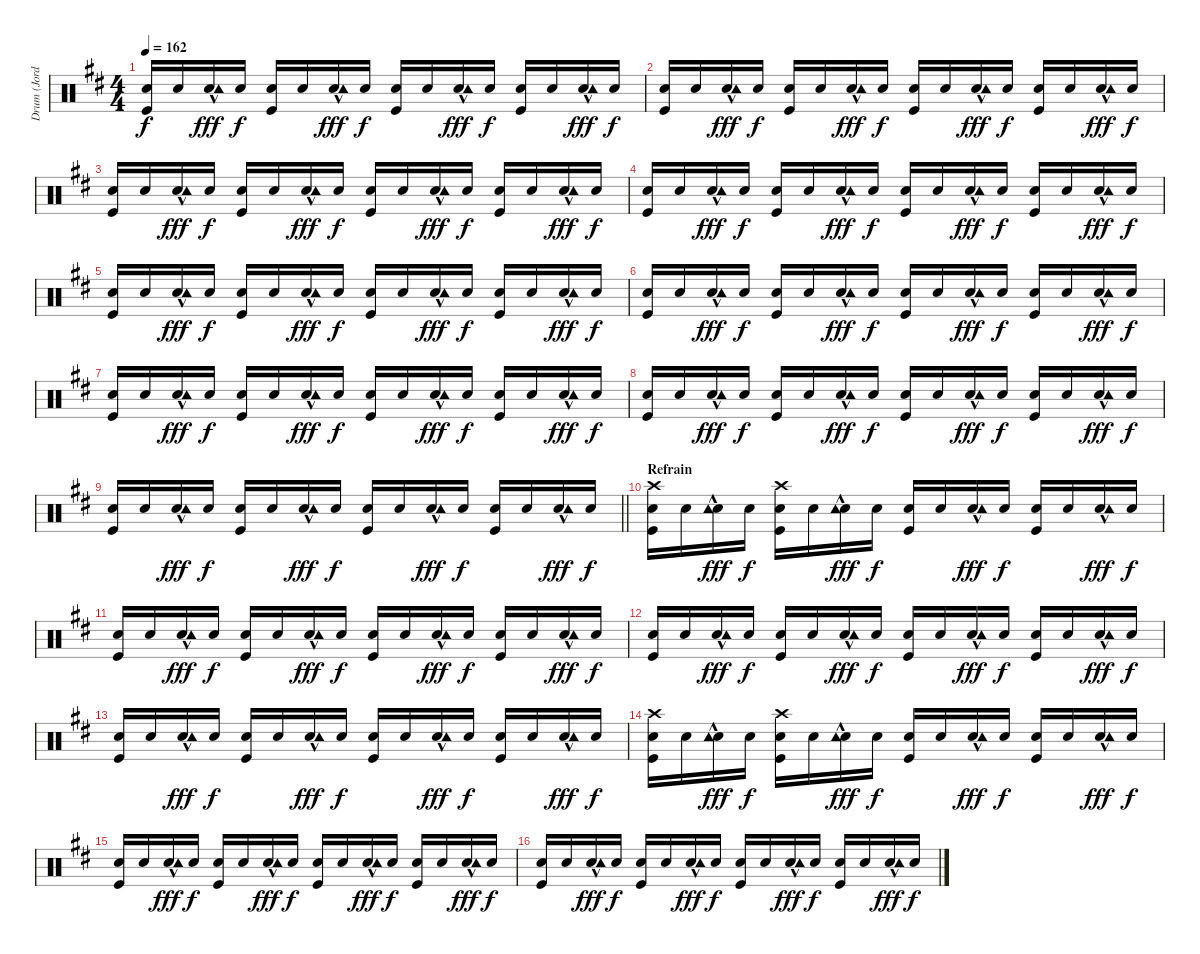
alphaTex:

\track ("Drum (Jordan)" "Drum (Jord") {instrument percussion}
\staff {score}
\articulation defaults
\ts (4 4)
\tempo 162
\clef neutral
\ks d
("Snare (hit) 2" "Kick (hit)").16{dy f} "Snare (hit) 2".16 ("Snare (hit) 2"{hac} "Tambourine (hit)").16{dy fff} "Snare (hit) 2".16{dy f} ("Snare (hit) 2" "Kick (hit)").16 "Snare (hit) 2".16 ("Snare (hit) 2"{hac} "Tambourine (hit)").16{dy fff} "Snare (hit) 2".16{dy f} ("Snare (hit) 2" "Kick (hit)").16 "Snare (hit) 2".16 ("Snare (hit) 2"{hac} "Tambourine (hit)").16{dy fff} "Snare (hit) 2".16{dy f} ("Snare (hit) 2" "Kick (hit)").16 "Snare (hit) 2".16 ("Snare (hit) 2"{hac} "Tambourine (hit)").16{dy fff} "Snare (hit) 2".16{dy f} |
("Snare (hit) 2" "Kick (hit)").16 "Snare (hit) 2".16 ("Snare (hit) 2"{hac} "Tambourine (hit)").16{dy fff} "Snare (hit) 2".16{dy f} ("Snare (hit) 2" "Kick (hit)").16 "Snare (hit) 2".16 ("Snare (hit) 2"{hac} "Tambourine (hit)").16{dy fff} "Snare (hit) 2".16{dy f} ("Snare (hit) 2" "Kick (hit)").16 "Snare (hit) 2".16 ("Snare (hit) 2"{hac} "Tambourine (hit)").16{dy fff} "Snare (hit) 2".16{dy f} ("Snare (hit) 2" "Kick (hit)").16 "Snare (hit) 2".16 ("Snare (hit) 2"{hac} "Tambourine (hit)").16{dy fff} "Snare (hit) 2".16{dy f} |
("Snare (hit) 2" "Kick (hit)").16 "Snare (hit) 2".16 ("Snare (hit) 2"{hac} "Tambourine (hit)").16{dy fff} "Snare (hit) 2".16{dy f} ("Snare (hit) 2" "Kick (hit)").16 "Snare (hit) 2".16 ("Snare (hit) 2"{hac} "Tambourine (hit)").16{dy fff} "Snare (hit) 2".16{dy f} ("Snare (hit) 2" "Kick (hit)").16 "Snare (hit) 2".16 ("Snare (hit) 2"{hac} "Tambourine (hit)").16{dy fff} "Snare (hit) 2".16{dy f} ("Snare (hit) 2" "Kick (hit)").16 "Snare (hit) 2".16 ("Snare (hit) 2"{hac} "Tambourine (hit)").16{dy fff} "Snare (hit) 2".16{dy f} |
("Snare (hit) 2" "Kick (hit)").16 "Snare (hit) 2".16 ("Snare (hit) 2"{hac} "Tambourine (hit)").16{dy fff} "Snare (hit) 2".16{dy f} ("Snare (hit) 2" "Kick (hit)").16 "Snare (hit) 2".16 ("Snare (hit) 2"{hac} "Tambourine (hit)").16{dy fff} "Snare (hit) 2".16{dy f} ("Snare (hit) 2" "Kick (hit)").16 "Snare (hit) 2".16 ("Snare (hit) 2"{hac} "Tambourine (hit)").16{dy fff} "Snare (hit) 2".16{dy f} ("Snare (hit) 2" "Kick (hit)").16 "Snare (hit) 2".16 ("Snare (hit) 2"{hac} "Tambourine (hit)").16{dy fff} "Snare (hit) 2".16{dy f} |
("Snare (hit) 2" "Kick (hit)").16 "Snare (hit) 2".16 ("Snare (hit) 2"{hac} "Tambourine (hit)").16{dy fff} "Snare (hit) 2".16{dy f} ("Snare (hit) 2" "Kick (hit)").16 "Snare (hit) 2".16 ("Snare (hit) 2"{hac} "Tambourine (hit)").16{dy fff} "Snare (hit) 2".16{dy f} ("Snare (hit) 2" "Kick (hit)").16 "Snare (hit) 2".16 ("Snare (hit) 2"{hac} "Tambourine (hit)").16{dy fff} "Snare (hit) 2".16{dy f} ("Snare (hit) 2" "Kick (hit)").16 "Snare (hit) 2".16 ("Snare (hit) 2"{hac} "Tambourine (hit)").16{dy fff} "Snare (hit) 2".16{dy f} |
("Snare (hit) 2" "Kick (hit)").16 "Snare (hit) 2".16 ("Snare (hit) 2"{hac} "Tambourine (hit)").16{dy fff} "Snare (hit) 2".16{dy f} ("Snare (hit) 2" "Kick (hit)").16 "Snare (hit) 2".16 ("Snare (hit) 2"{hac} "Tambourine (hit)").16{dy fff} "Snare (hit) 2".16{dy f} ("Snare (hit) 2" "Kick (hit)").16 "Snare (hit) 2".16 ("Snare (hit) 2"{hac} "Tambourine (hit)").16{dy fff} "Snare (hit) 2".16{dy f} ("Snare (hit) 2" "Kick (hit)").16 "Snare (hit) 2".16 ("Snare (hit) 2"{hac} "Tambourine (hit)").16{dy fff} "Snare (hit) 2".16{dy f} |
("Snare (hit) 2" "Kick (hit)").16 "Snare (hit) 2".16 ("Snare (hit) 2"{hac} "Tambourine (hit)").16{dy fff} "Snare (hit) 2".16{dy f} ("Snare (hit) 2" "Kick (hit)").16 "Snare (hit) 2".16 ("Snare (hit) 2"{hac} "Tambourine (hit)").16{dy fff} "Snare (hit) 2".16{dy f} ("Snare (hit) 2" "Kick (hit)").16 "Snare (hit) 2".16 ("Snare (hit) 2"{hac} "Tambourine (hit)").16{dy fff} "Snare (hit) 2".16{dy f} ("Snare (hit) 2" "Kick (hit)").16 "Snare (hit) 2".16 ("Snare (hit) 2"{hac} "Tambourine (hit)").16{dy fff} "Snare (hit) 2".16{dy f} |
("Snare (hit) 2" "Kick (hit)").16 "Snare (hit) 2".16 ("Snare (hit) 2"{hac} "Tambourine (hit)").16{dy fff} "Snare (hit) 2".16{dy f} ("Snare (hit) 2" "Kick (hit)").16 "Snare (hit) 2".16 ("Snare (hit) 2"{hac} "Tambourine (hit)").16{dy fff} "Snare (hit) 2".16{dy f} ("Snare (hit) 2" "Kick (hit)").16 "Snare (hit) 2".16 ("Snare (hit) 2"{hac} "Tambourine (hit)").16{dy fff} "Snare (hit) 2".16{dy f} ("Snare (hit) 2" "Kick (hit)").16 "Snare (hit) 2".16 ("Snare (hit) 2"{hac} "Tambourine (hit)").16{dy fff} "Snare (hit) 2".16{dy f} |
\barLineRight lightlight
("Snare (hit) 2" "Kick (hit)").16 "Snare (hit) 2".16 ("Snare (hit) 2"{hac} "Tambourine (hit)").16{dy fff} "Snare (hit) 2".16{dy f} ("Snare (hit) 2" "Kick (hit)").16 "Snare (hit) 2".16 ("Snare (hit) 2"{hac} "Tambourine (hit)").16{dy fff} "Snare (hit) 2".16{dy f} ("Snare (hit) 2" "Kick (hit)").16 "Snare (hit) 2".16 ("Snare (hit) 2"{hac} "Tambourine (hit)").16{dy fff} "Snare (hit) 2".16{dy f} ("Snare (hit) 2" "Kick (hit)").16 "Snare (hit) 2".16 ("Snare (hit) 2"{hac} "Tambourine (hit)").16{dy fff} "Snare (hit) 2".16{dy f} |
\section ("" "Refrain")
("Snare (hit) 2" "Kick (hit)" "Crash high (hit)").16 "Snare (hit) 2".16 ("Snare (hit) 2"{hac} "Tambourine (hit)").16{dy fff} "Snare (hit) 2".16{dy f} ("Snare (hit) 2" "Kick (hit)" "Crash high (hit)").16 "Snare (hit) 2".16 ("Snare (hit) 2"{hac} "Tambourine (hit)").16{dy fff} "Snare (hit) 2".16{dy f} ("Snare (hit) 2" "Kick (hit)").16 "Snare (hit) 2".16 ("Snare (hit) 2"{hac} "Tambourine (hit)").16{dy fff} "Snare (hit) 2".16{dy f} ("Snare (hit) 2" "Kick (hit)").16 "Snare (hit) 2".16 ("Snare (hit) 2"{hac} "Tambourine (hit)").16{dy fff} "Snare (hit) 2".16{dy f} |
("Snare (hit) 2" "Kick (hit)").16 "Snare (hit) 2".16 ("Snare (hit) 2"{hac} "Tambourine (hit)").16{dy fff} "Snare (hit) 2".16{dy f} ("Snare (hit) 2" "Kick (hit)").16 "Snare (hit) 2".16 ("Snare (hit) 2"{hac} "Tambourine (hit)").16{dy fff} "Snare (hit) 2".16{dy f} ("Snare (hit) 2" "Kick (hit)").16 "Snare (hit) 2".16 ("Snare (hit) 2"{hac} "Tambourine (hit)").16{dy fff} "Snare (hit) 2".16{dy f} ("Snare (hit) 2" "Kick (hit)").16 "Snare (hit) 2".16 ("Snare (hit) 2"{hac} "Tambourine (hit)").16{dy fff} "Snare (hit) 2".16{dy f} |
("Snare (hit) 2" "Kick (hit)").16 "Snare (hit) 2".16 ("Snare (hit) 2"{hac} "Tambourine (hit)").16{dy fff} "Snare (hit) 2".16{dy f} ("Snare (hit) 2" "Kick (hit)").16 "Snare (hit) 2".16 ("Snare (hit) 2"{hac} "Tambourine (hit)").16{dy fff} "Snare (hit) 2".16{dy f} ("Snare (hit) 2" "Kick (hit)").16 "Snare (hit) 2".16 ("Snare (hit) 2"{hac} "Tambourine (hit)").16{dy fff} "Snare (hit) 2".16{dy f} ("Snare (hit) 2" "Kick (hit)").16 "Snare (hit) 2".16 ("Snare (hit) 2"{hac} "Tambourine (hit)").16{dy fff} "Snare (hit) 2".16{dy f} |
("Snare (hit) 2" "Kick (hit)").16 "Snare (hit) 2".16 ("Snare (hit) 2"{hac} "Tambourine (hit)").16{dy fff} "Snare (hit) 2".16{dy f} ("Snare (hit) 2" "Kick (hit)").16 "Snare (hit) 2".16 ("Snare (hit) 2"{hac} "Tambourine (hit)").16{dy fff} "Snare (hit) 2".16{dy f} ("Snare (hit) 2" "Kick (hit)").16 "Snare (hit) 2".16 ("Snare (hit) 2"{hac} "Tambourine (hit)").16{dy fff} "Snare (hit) 2".16{dy f} ("Snare (hit) 2" "Kick (hit)").16 "Snare (hit) 2".16 ("Snare (hit) 2"{hac} "Tambourine (hit)").16{dy fff} "Snare (hit) 2".16{dy f} |
("Snare (hit) 2" "Kick (hit)" "Crash high (hit)").16 "Snare (hit) 2".16 ("Snare (hit) 2"{hac} "Tambourine (hit)").16{dy fff} "Snare (hit) 2".16{dy f} ("Snare (hit) 2" "Kick (hit)" "Crash high (hit)").16 "Snare (hit) 2".16 ("Snare (hit) 2"{hac} "Tambourine (hit)").16{dy fff} "Snare (hit) 2".16{dy f} ("Snare (hit) 2" "Kick (hit)").16 "Snare (hit) 2".16 ("Snare (hit) 2"{hac} "Tambourine (hit)").16{dy fff} "Snare (hit) 2".16{dy f} ("Snare (hit) 2" "Kick (hit)").16 "Snare (hit) 2".16 ("Snare (hit) 2"{hac} "Tambourine (hit)").16{dy fff} "Snare (hit) 2".16{dy f} |
("Snare (hit) 2" "Kick (hit)").16 "Snare (hit) 2".16 ("Snare (hit) 2"{hac} "Tambourine (hit)").16{dy fff} "Snare (hit) 2".16{dy f} ("Snare (hit) 2" "Kick (hit)").16 "Snare (hit) 2".16 ("Snare (hit) 2"{hac} "Tambourine (hit)").16{dy fff} "Snare (hit) 2".16{dy f} ("Snare (hit) 2" "Kick (hit)").16 "Snare (hit) 2".16 ("Snare (hit) 2"{hac} "Tambourine (hit)").16{dy fff} "Snare (hit) 2".16{dy f} ("Snare (hit) 2" "Kick (hit)").16 "Snare (hit) 2".16 ("Snare (hit) 2"{hac} "Tambourine (hit)").16{dy fff} "Snare (hit) 2".16{dy f} |
("Snare (hit) 2" "Kick (hit)").16 "Snare (hit) 2".16 ("Snare (hit) 2"{hac} "Tambourine (hit)").16{dy fff} "Snare (hit) 2".16{dy f} ("Snare (hit) 2" "Kick (hit)").16 "Snare (hit) 2".16 ("Snare (hit) 2"{hac} "Tambourine (hit)").16{dy fff} "Snare (hit) 2".16{dy f} ("Snare (hit) 2" "Kick (hit)").16 "Snare (hit) 2".16 ("Snare (hit) 2"{hac} "Tambourine (hit)").16{dy fff} "Snare (hit) 2".16{dy f} ("Snare (hit) 2" "Kick (hit)").16 "Snare (hit) 2".16 ("Snare (hit) 2"{hac} "Tambourine (hit)").16{dy fff} "Snare (hit) 2".16{dy f}
